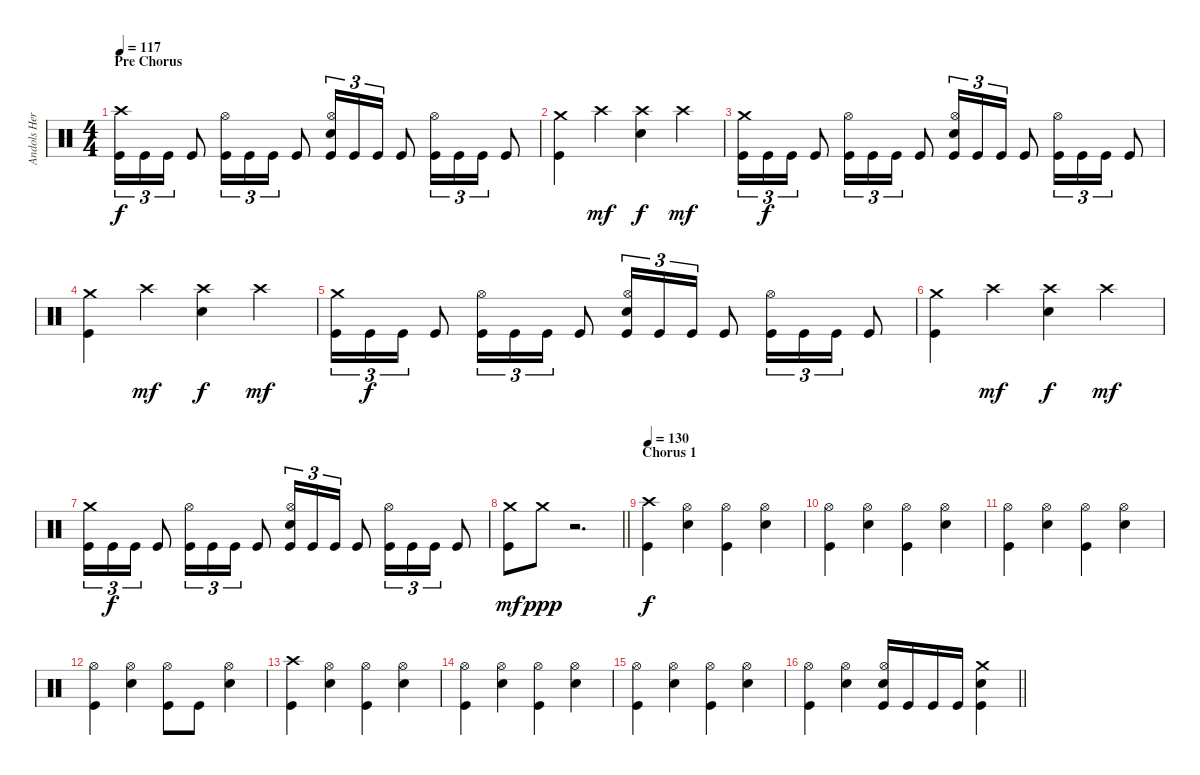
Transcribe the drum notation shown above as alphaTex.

\track ("Andols Herrick" "Andols Her") {instrument percussion}
\staff {score}
\articulation defaults
\ts (4 4)
\section ("" "Pre Chorus")
\tempo 117
\clef neutral
\ks c
("Crash high (hit)" "Kick (hit)").16{tu (3 2) dy f} "Kick (hit)".16{tu (3 2)} "Kick (hit)".16{tu (3 2)} "Kick (hit)".8 ("Hi-Hat (open)" "Kick (hit)").16{tu (3 2)} "Kick (hit)".16{tu (3 2)} "Kick (hit)".16{tu (3 2)} "Kick (hit)".8 ("Hi-Hat (open)" "Electric Snare (hit)" "Kick (hit)").16{tu (3 2)} "Kick (hit)".16{tu (3 2)} "Kick (hit)".16{tu (3 2)} "Kick (hit)".8 ("Hi-Hat (open)" "Kick (hit)").16{tu (3 2)} "Kick (hit)".16{tu (3 2)} "Kick (hit)".16{tu (3 2)} "Kick (hit)".8 |
("Crash medium (hit)" "Kick (hit)").4 "Crash high (hit)".4{dy mf} ("Crash high (hit)" "Electric Snare (hit)").4{dy f} "Crash high (hit)".4{dy mf} |
("Crash medium (hit)" "Kick (hit)").16{tu (3 2)} "Kick (hit)".16{tu (3 2) dy f} "Kick (hit)".16{tu (3 2)} "Kick (hit)".8 ("Hi-Hat (open)" "Kick (hit)").16{tu (3 2)} "Kick (hit)".16{tu (3 2)} "Kick (hit)".16{tu (3 2)} "Kick (hit)".8 ("Hi-Hat (open)" "Electric Snare (hit)" "Kick (hit)").16{tu (3 2)} "Kick (hit)".16{tu (3 2)} "Kick (hit)".16{tu (3 2)} "Kick (hit)".8 ("Hi-Hat (open)" "Kick (hit)").16{tu (3 2)} "Kick (hit)".16{tu (3 2)} "Kick (hit)".16{tu (3 2)} "Kick (hit)".8 |
("Crash medium (hit)" "Kick (hit)").4 "Crash high (hit)".4{dy mf} ("Crash high (hit)" "Electric Snare (hit)").4{dy f} "Crash high (hit)".4{dy mf} |
("Crash medium (hit)" "Kick (hit)").16{tu (3 2)} "Kick (hit)".16{tu (3 2) dy f} "Kick (hit)".16{tu (3 2)} "Kick (hit)".8 ("Hi-Hat (open)" "Kick (hit)").16{tu (3 2)} "Kick (hit)".16{tu (3 2)} "Kick (hit)".16{tu (3 2)} "Kick (hit)".8 ("Hi-Hat (open)" "Electric Snare (hit)" "Kick (hit)").16{tu (3 2)} "Kick (hit)".16{tu (3 2)} "Kick (hit)".16{tu (3 2)} "Kick (hit)".8 ("Hi-Hat (open)" "Kick (hit)").16{tu (3 2)} "Kick (hit)".16{tu (3 2)} "Kick (hit)".16{tu (3 2)} "Kick (hit)".8 |
("Crash medium (hit)" "Kick (hit)").4 "Crash high (hit)".4{dy mf} ("Crash high (hit)" "Electric Snare (hit)").4{dy f} "Crash high (hit)".4{dy mf} |
("Crash medium (hit)" "Kick (hit)").16{tu (3 2)} "Kick (hit)".16{tu (3 2) dy f} "Kick (hit)".16{tu (3 2)} "Kick (hit)".8 ("Hi-Hat (open)" "Kick (hit)").16{tu (3 2)} "Kick (hit)".16{tu (3 2)} "Kick (hit)".16{tu (3 2)} "Kick (hit)".8 ("Hi-Hat (open)" "Electric Snare (hit)" "Kick (hit)").16{tu (3 2)} "Kick (hit)".16{tu (3 2)} "Kick (hit)".16{tu (3 2)} "Kick (hit)".8 ("Hi-Hat (open)" "Kick (hit)").16{tu (3 2)} "Kick (hit)".16{tu (3 2)} "Kick (hit)".16{tu (3 2)} "Kick (hit)".8 |
\barLineRight lightlight
("Crash medium (hit)" "Kick (hit)").8{dy mf} "Crash medium (hit)".8{dy ppp} r.2{d} |
\section ("" "Chorus 1 ")
\tempo 130
("Crash high (hit)" "Kick (hit)").4{dy f} ("Hi-Hat (open)" "Electric Snare (hit)").4 ("Hi-Hat (open)" "Kick (hit)").4 ("Hi-Hat (open)" "Electric Snare (hit)").4 |
("Hi-Hat (open)" "Kick (hit)").4 ("Hi-Hat (open)" "Electric Snare (hit)").4 ("Hi-Hat (open)" "Kick (hit)").4 ("Hi-Hat (open)" "Electric Snare (hit)").4 |
("Hi-Hat (open)" "Kick (hit)").4 ("Hi-Hat (open)" "Electric Snare (hit)").4 ("Hi-Hat (open)" "Kick (hit)").4 ("Hi-Hat (open)" "Electric Snare (hit)").4 |
("Hi-Hat (open)" "Kick (hit)").4 ("Hi-Hat (open)" "Electric Snare (hit)").4 ("Hi-Hat (open)" "Kick (hit)").8 "Kick (hit)".8 ("Hi-Hat (open)" "Electric Snare (hit)").4 |
("Crash high (hit)" "Kick (hit)").4 ("Hi-Hat (open)" "Electric Snare (hit)").4 ("Hi-Hat (open)" "Kick (hit)").4 ("Hi-Hat (open)" "Electric Snare (hit)").4 |
("Hi-Hat (open)" "Kick (hit)").4 ("Hi-Hat (open)" "Electric Snare (hit)").4 ("Hi-Hat (open)" "Kick (hit)").4 ("Hi-Hat (open)" "Electric Snare (hit)").4 |
("Hi-Hat (open)" "Kick (hit)").4 ("Hi-Hat (open)" "Electric Snare (hit)").4 ("Hi-Hat (open)" "Kick (hit)").4 ("Hi-Hat (open)" "Electric Snare (hit)").4 |
\barLineRight lightlight
("Hi-Hat (open)" "Kick (hit)").4 ("Hi-Hat (open)" "Electric Snare (hit)").4 ("Hi-Hat (open)" "Electric Snare (hit)" "Kick (hit)").16 "Kick (hit)".16 "Kick (hit)".16 "Kick (hit)".16 ("Crash medium (hit)" "Electric Snare (hit)" "Kick (hit)").4
